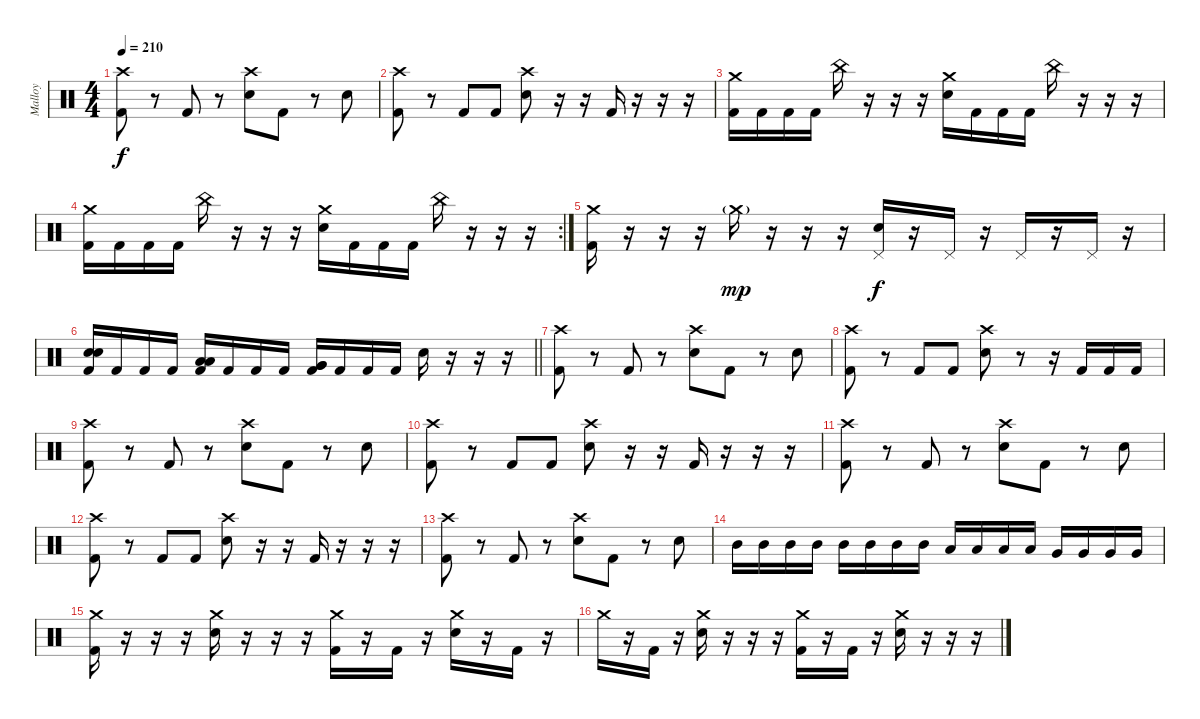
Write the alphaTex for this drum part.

\track ("Malloy" "Malloy") {instrument percussion}
\staff {score}
\articulation defaults
\ts (4 4)
\tempo 210
\clef neutral
\ks c
("Kick (hit) 2" "Crash high (hit)").8{dy f} r.8 "Kick (hit) 2".8 r.8 ("Electric Snare (hit)" "Crash high (hit)").8 "Kick (hit) 2".8 r.8 "Electric Snare (hit)".8 |
("Kick (hit) 2" "Crash high (hit)").8 r.8 "Kick (hit) 2".8 "Kick (hit) 2".8 ("Electric Snare (hit)" "Crash high (hit)").8 r.16 r.16 "Kick (hit) 2".16 r.16 r.16 r.16 |
("Kick (hit) 2" "Crash medium (hit)").16 "Kick (hit) 2".16 "Kick (hit) 2".16 "Kick (hit) 2".16 "China (hit)".16 r.16 r.16 r.16 ("Electric Snare (hit)" "Crash medium (hit)").16 "Kick (hit) 2".16 "Kick (hit) 2".16 "Kick (hit) 2".16 "China (hit)".16 r.16 r.16 r.16 |
\rc 2
("Kick (hit) 2" "Crash medium (hit)").16 "Kick (hit) 2".16 "Kick (hit) 2".16 "Kick (hit) 2".16 "China (hit)".16 r.16 r.16 r.16 ("Electric Snare (hit)" "Crash medium (hit)").16 "Kick (hit) 2".16 "Kick (hit) 2".16 "Kick (hit) 2".16 "China (hit)".16 r.16 r.16 r.16 |
("Kick (hit) 2" "Crash medium (hit)").16 r.16 r.16 r.16 "Crash medium (hit)"{g}.16{dy mp} r.16 r.16 r.16 ("Electric Snare (hit)" "Pedal Hi-Hat (hit)").16{dy f} r.16 "Pedal Hi-Hat (hit)".16 r.16 "Pedal Hi-Hat (hit)".16 r.16 "Pedal Hi-Hat (hit)".16 r.16 |
\barLineRight lightlight
("Kick (hit) 2" "Electric Snare (hit)" "Electric Snare (hit)").16 "Kick (hit) 2".16 "Kick (hit) 2".16 "Kick (hit) 2".16 ("Kick (hit) 2" "Low Tom (hit)" "Low Tom (hit)").16 "Kick (hit) 2".16 "Kick (hit) 2".16 "Kick (hit) 2".16 ("Kick (hit) 2" "Very Low Tom (hit)" "Very Low Tom (hit)").16 "Kick (hit) 2".16 "Kick (hit) 2".16 "Kick (hit) 2".16 "Electric Snare (hit)".16 r.16 r.16 r.16 |
("Kick (hit) 2" "Crash high (hit)").8 r.8 "Kick (hit) 2".8 r.8 ("Electric Snare (hit)" "Crash high (hit)").8 "Kick (hit) 2".8 r.8 "Electric Snare (hit)".8 |
("Kick (hit) 2" "Crash high (hit)").8 r.8 "Kick (hit) 2".8 "Kick (hit) 2".8 ("Electric Snare (hit)" "Crash high (hit)").8 r.8 r.16 "Kick (hit) 2".16 "Kick (hit) 2".16 "Kick (hit) 2".16 |
("Kick (hit) 2" "Crash high (hit)").8 r.8 "Kick (hit) 2".8 r.8 ("Electric Snare (hit)" "Crash high (hit)").8 "Kick (hit) 2".8 r.8 "Electric Snare (hit)".8 |
("Kick (hit) 2" "Crash high (hit)").8 r.8 "Kick (hit) 2".8 "Kick (hit) 2".8 ("Electric Snare (hit)" "Crash high (hit)").8 r.16 r.16 "Kick (hit) 2".16 r.16 r.16 r.16 |
("Kick (hit) 2" "Crash high (hit)").8 r.8 "Kick (hit) 2".8 r.8 ("Electric Snare (hit)" "Crash high (hit)").8 "Kick (hit) 2".8 r.8 "Electric Snare (hit)".8 |
("Kick (hit) 2" "Crash high (hit)").8 r.8 "Kick (hit) 2".8 "Kick (hit) 2".8 ("Electric Snare (hit)" "Crash high (hit)").8 r.16 r.16 "Kick (hit) 2".16 r.16 r.16 r.16 |
("Kick (hit) 2" "Crash high (hit)").8 r.8 "Kick (hit) 2".8 r.8 ("Electric Snare (hit)" "Crash high (hit)").8 "Kick (hit) 2".8 r.8 "Electric Snare (hit)".8 |
"Mid Tom (hit)".16 "Mid Tom (hit)".16 "Mid Tom (hit)".16 "Mid Tom (hit)".16 "Mid Tom (hit)".16 "Mid Tom (hit)".16 "Mid Tom (hit)".16 "Mid Tom (hit)".16 "Low Tom (hit)".16 "Low Tom (hit)".16 "Low Tom (hit)".16 "Low Tom (hit)".16 "Very Low Tom (hit)".16 "Very Low Tom (hit)".16 "Very Low Tom (hit)".16 "Very Low Tom (hit)".16 |
("Kick (hit) 2" "Crash medium (hit)").16 r.16 r.16 r.16 ("Electric Snare (hit)" "Crash medium (hit)").16 r.16 r.16 r.16 ("Kick (hit) 2" "Crash medium (hit)").16 r.16 "Kick (hit) 2".16 r.16 ("Electric Snare (hit)" "Crash medium (hit)").16 r.16 "Kick (hit) 2".16 r.16 |
"Crash medium (hit)".16 r.16 "Kick (hit) 2".16 r.16 ("Electric Snare (hit)" "Crash medium (hit)").16 r.16 r.16 r.16 ("Kick (hit) 2" "Crash medium (hit)").16 r.16 "Kick (hit) 2".16 r.16 ("Electric Snare (hit)" "Crash medium (hit)").16 r.16 r.16 r.16
